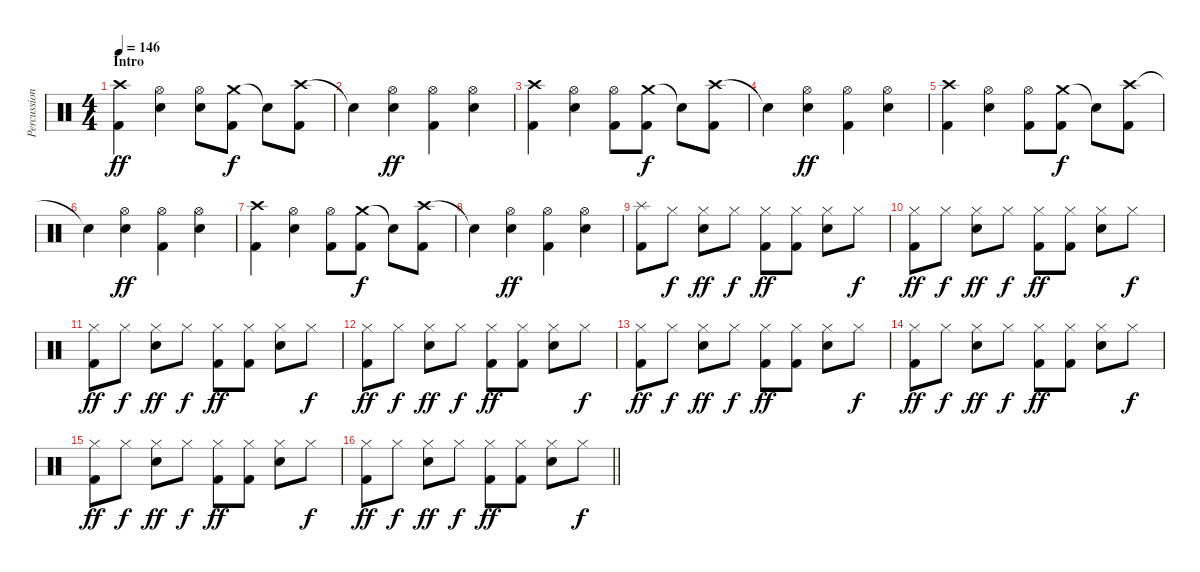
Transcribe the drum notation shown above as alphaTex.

\track ("Percussion" "Percussion") {instrument percussion}
\staff {score}
\articulation defaults
\ts (4 4)
\section ("" "Intro")
\tempo 146
\clef neutral
\ks c
("Crash high (hit)" "Kick (hit) 2").4{dy ff} ("Hi-Hat (open)" "Snare (hit) 2").4 ("Hi-Hat (open)" "Snare (hit) 2").8 ("Crash medium (hit)" "Kick (hit) 2").8{dy f} "Snare (hit)"{t}.8 ("Crash high (hit)" "Kick (hit) 2").8 |
"Snare (hit)"{t}.4 ("Hi-Hat (open)" "Snare (hit) 2").4{dy ff} ("Hi-Hat (open)" "Kick (hit) 2").4 ("Hi-Hat (open)" "Snare (hit) 2").4 |
("Crash high (hit)" "Kick (hit) 2").4 ("Hi-Hat (open)" "Snare (hit) 2").4 ("Hi-Hat (open)" "Kick (hit) 2").8 ("Crash medium (hit)" "Kick (hit) 2").8{dy f} "Snare (hit)"{t}.8 ("Crash high (hit)" "Kick (hit) 2").8 |
"Snare (hit)"{t}.4 ("Hi-Hat (open)" "Snare (hit) 2").4{dy ff} ("Hi-Hat (open)" "Kick (hit) 2").4 ("Hi-Hat (open)" "Snare (hit) 2").4 |
("Crash high (hit)" "Kick (hit) 2").4 ("Hi-Hat (open)" "Snare (hit) 2").4 ("Hi-Hat (open)" "Kick (hit) 2").8 ("Crash medium (hit)" "Kick (hit) 2").8{dy f} "Snare (hit)"{t}.8 ("Crash high (hit)" "Kick (hit) 2").8 |
"Snare (hit)"{t}.4 ("Hi-Hat (open)" "Snare (hit) 2").4{dy ff} ("Hi-Hat (open)" "Kick (hit) 2").4 ("Hi-Hat (open)" "Snare (hit) 2").4 |
("Crash high (hit)" "Kick (hit) 2").4 ("Hi-Hat (open)" "Snare (hit) 2").4 ("Hi-Hat (open)" "Kick (hit) 2").8 ("Crash medium (hit)" "Kick (hit) 2").8{dy f} "Snare (hit)"{t}.8 ("Crash high (hit)" "Kick (hit) 2").8 |
"Snare (hit)"{t}.4 ("Hi-Hat (open)" "Snare (hit) 2").4{dy ff} ("Hi-Hat (open)" "Kick (hit) 2").4 ("Hi-Hat (open)" "Snare (hit) 2").4 |
("Splash (hit)" "Kick (hit) 2").8 "Hi-Hat (closed)".8{dy f} ("Hi-Hat (closed)" "Snare (hit) 2").8{dy ff} "Hi-Hat (closed)".8{dy f} ("Hi-Hat (closed)" "Kick (hit) 2").8{dy ff} ("Hi-Hat (closed)" "Kick (hit) 2").8 ("Hi-Hat (closed)" "Snare (hit) 2").8 "Hi-Hat (closed)".8{dy f} |
("Hi-Hat (closed)" "Kick (hit) 2").8{dy ff} "Hi-Hat (closed)".8{dy f} ("Hi-Hat (closed)" "Snare (hit) 2").8{dy ff} "Hi-Hat (closed)".8{dy f} ("Hi-Hat (closed)" "Kick (hit) 2").8{dy ff} ("Hi-Hat (closed)" "Kick (hit) 2").8 ("Hi-Hat (closed)" "Snare (hit) 2").8 "Hi-Hat (closed)".8{dy f} |
("Hi-Hat (closed)" "Kick (hit) 2").8{dy ff} "Hi-Hat (closed)".8{dy f} ("Hi-Hat (closed)" "Snare (hit) 2").8{dy ff} "Hi-Hat (closed)".8{dy f} ("Hi-Hat (closed)" "Kick (hit) 2").8{dy ff} ("Hi-Hat (closed)" "Kick (hit) 2").8 ("Hi-Hat (closed)" "Snare (hit) 2").8 "Hi-Hat (closed)".8{dy f} |
("Hi-Hat (closed)" "Kick (hit) 2").8{dy ff} "Hi-Hat (closed)".8{dy f} ("Hi-Hat (closed)" "Snare (hit) 2").8{dy ff} "Hi-Hat (closed)".8{dy f} ("Hi-Hat (closed)" "Kick (hit) 2").8{dy ff} ("Hi-Hat (closed)" "Kick (hit) 2").8 ("Hi-Hat (closed)" "Snare (hit) 2").8 "Hi-Hat (closed)".8{dy f} |
("Hi-Hat (closed)" "Kick (hit) 2").8{dy ff} "Hi-Hat (closed)".8{dy f} ("Hi-Hat (closed)" "Snare (hit) 2").8{dy ff} "Hi-Hat (closed)".8{dy f} ("Hi-Hat (closed)" "Kick (hit) 2").8{dy ff} ("Hi-Hat (closed)" "Kick (hit) 2").8 ("Hi-Hat (closed)" "Snare (hit) 2").8 "Hi-Hat (closed)".8{dy f} |
("Hi-Hat (closed)" "Kick (hit) 2").8{dy ff} "Hi-Hat (closed)".8{dy f} ("Hi-Hat (closed)" "Snare (hit) 2").8{dy ff} "Hi-Hat (closed)".8{dy f} ("Hi-Hat (closed)" "Kick (hit) 2").8{dy ff} ("Hi-Hat (closed)" "Kick (hit) 2").8 ("Hi-Hat (closed)" "Snare (hit) 2").8 "Hi-Hat (closed)".8{dy f} |
("Hi-Hat (closed)" "Kick (hit) 2").8{dy ff} "Hi-Hat (closed)".8{dy f} ("Hi-Hat (closed)" "Snare (hit) 2").8{dy ff} "Hi-Hat (closed)".8{dy f} ("Hi-Hat (closed)" "Kick (hit) 2").8{dy ff} ("Hi-Hat (closed)" "Kick (hit) 2").8 ("Hi-Hat (closed)" "Snare (hit) 2").8 "Hi-Hat (closed)".8{dy f} |
\barLineRight lightlight
("Hi-Hat (closed)" "Kick (hit) 2").8{dy ff} "Hi-Hat (closed)".8{dy f} ("Hi-Hat (closed)" "Snare (hit) 2").8{dy ff} "Hi-Hat (closed)".8{dy f} ("Hi-Hat (closed)" "Kick (hit) 2").8{dy ff} ("Hi-Hat (closed)" "Kick (hit) 2").8 ("Hi-Hat (closed)" "Snare (hit) 2").8 "Hi-Hat (closed)".8{dy f}
